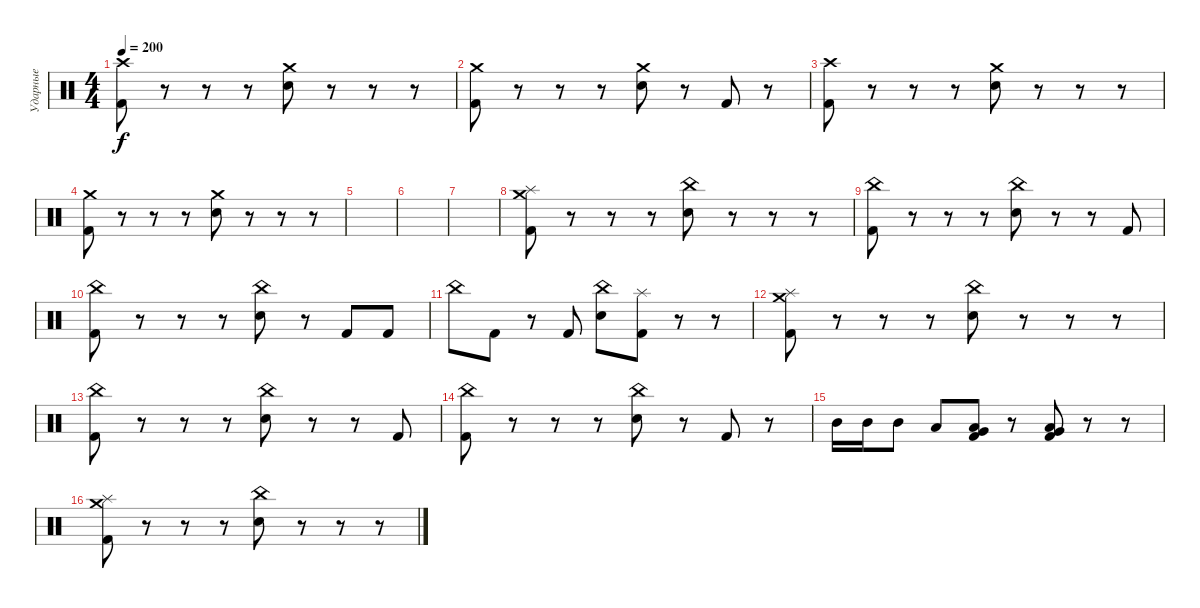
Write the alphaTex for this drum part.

\track ("Ударные" "Ударные") {instrument percussion}
\staff {score}
\articulation defaults
\ts (4 4)
\tempo 200
\clef neutral
\ks c
("Kick (hit) 2" "Crash high (hit)").8{dy f} r.8 r.8 r.8 ("Electric Snare (hit)" "Crash medium (hit)").8 r.8 r.8 r.8 |
("Kick (hit) 2" "Crash medium (hit)").8 r.8 r.8 r.8 ("Electric Snare (hit)" "Crash medium (hit)").8 r.8 "Kick (hit) 2".8 r.8 |
("Kick (hit) 2" "Crash high (hit)").8 r.8 r.8 r.8 ("Electric Snare (hit)" "Crash medium (hit)").8 r.8 r.8 r.8 |
("Kick (hit) 2" "Crash medium (hit)").8 r.8 r.8 r.8 ("Electric Snare (hit)" "Crash medium (hit)").8 r.8 r.8 r.8 |
|
|
|
("Kick (hit) 2" "Splash (hit)" "Crash medium (hit)").8 r.8 r.8 r.8 ("Electric Snare (hit)" "China (hit)").8 r.8 r.8 r.8 |
("Kick (hit) 2" "China (hit)").8 r.8 r.8 r.8 ("Electric Snare (hit)" "China (hit)").8 r.8 r.8 "Kick (hit) 2".8 |
("Kick (hit) 2" "China (hit)").8 r.8 r.8 r.8 ("Electric Snare (hit)" "China (hit)").8 r.8 "Kick (hit) 2".8 "Kick (hit) 2".8 |
"China (hit)".8 "Kick (hit) 2".8 r.8 "Kick (hit) 2".8 ("Electric Snare (hit)" "China (hit)").8 ("Kick (hit) 2" "Splash (hit)").8 r.8 r.8 |
("Kick (hit) 2" "Splash (hit)" "Crash medium (hit)").8 r.8 r.8 r.8 ("Electric Snare (hit)" "China (hit)").8 r.8 r.8 r.8 |
("Kick (hit) 2" "China (hit)").8 r.8 r.8 r.8 ("Electric Snare (hit)" "China (hit)").8 r.8 r.8 "Kick (hit) 2".8 |
("Kick (hit) 2" "China (hit)").8 r.8 r.8 r.8 ("Electric Snare (hit)" "China (hit)").8 r.8 "Kick (hit) 2".8 r.8 |
"Mid Tom (hit)".16 "Mid Tom (hit)".16 "Mid Tom (hit)".8 "Low Tom (hit)".8 ("Kick (hit) 2" "Low Floor Tom (hit)" "Very Low Tom (hit)").8 r.8 ("Kick (hit) 2" "Low Floor Tom (hit)" "Very Low Tom (hit)").8 r.8 r.8 |
("Kick (hit) 2" "Splash (hit)" "Crash medium (hit)").8 r.8 r.8 r.8 ("Electric Snare (hit)" "China (hit)").8 r.8 r.8 r.8
